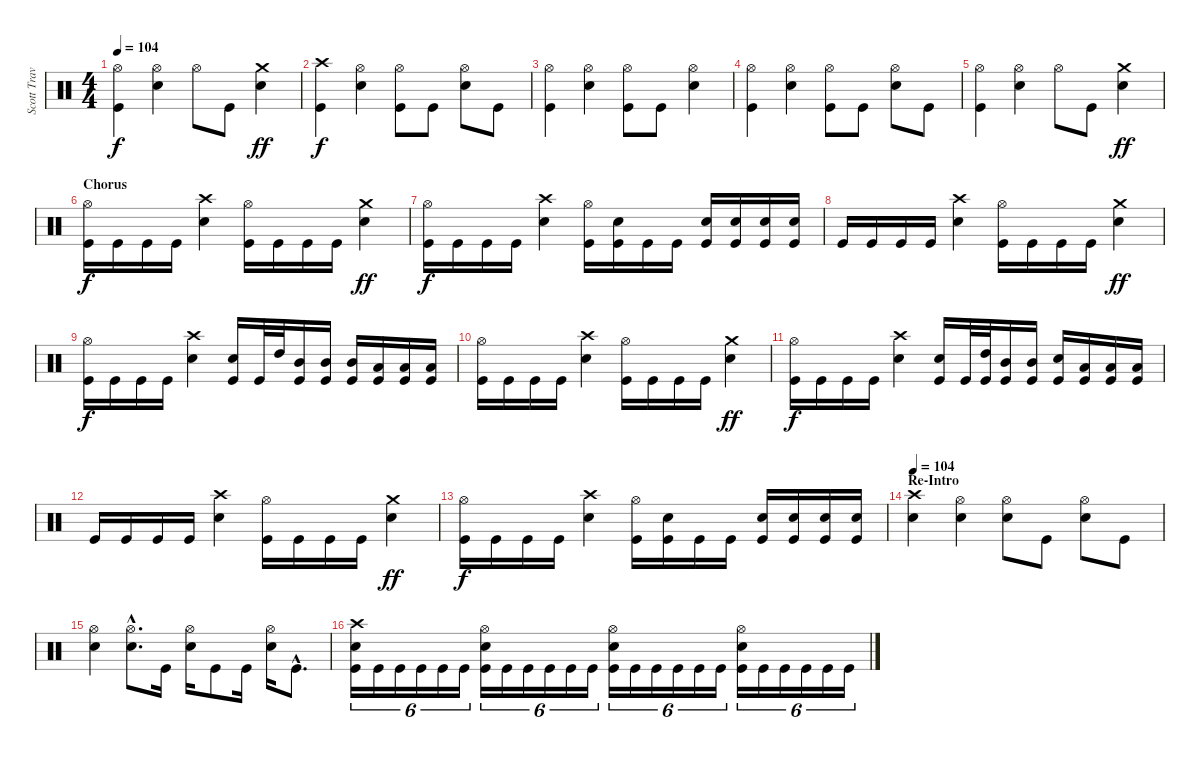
\track ("Scott Travis" "Scott Trav") {instrument percussion}
\staff {score}
\articulation defaults
\ts (4 4)
\tempo 104
\clef neutral
\ks c
("Hi-Hat (open)" "Kick (hit)").4{dy f} ("Hi-Hat (open)" "Electric Snare (hit)").4 "Hi-Hat (open)".8 "Kick (hit)".8 ("Crash medium (hit)" "Electric Snare (hit)").4{dy ff} |
("Crash high (hit)" "Kick (hit)").4{dy f} ("Hi-Hat (open)" "Electric Snare (hit)").4 ("Hi-Hat (open)" "Kick (hit)").8 "Kick (hit)".8 ("Hi-Hat (open)" "Electric Snare (hit)").8 "Kick (hit)".8 |
("Hi-Hat (open)" "Kick (hit)").4 ("Hi-Hat (open)" "Electric Snare (hit)").4 ("Hi-Hat (open)" "Kick (hit)").8 "Kick (hit)".8 ("Hi-Hat (open)" "Electric Snare (hit)").4 |
("Hi-Hat (open)" "Kick (hit)").4 ("Hi-Hat (open)" "Electric Snare (hit)").4 ("Hi-Hat (open)" "Kick (hit)").8 "Kick (hit)".8 ("Hi-Hat (open)" "Electric Snare (hit)").8 "Kick (hit)".8 |
("Hi-Hat (open)" "Kick (hit)").4 ("Hi-Hat (open)" "Electric Snare (hit)").4 "Hi-Hat (open)".8 "Kick (hit)".8 ("Crash medium (hit)" "Electric Snare (hit)").4{dy ff} |
\section ("" "Chorus")
("Hi-Hat (open)" "Kick (hit)").16{dy f} "Kick (hit)".16 "Kick (hit)".16 "Kick (hit)".16 ("Crash high (hit)" "Electric Snare (hit)").4 ("Hi-Hat (open)" "Kick (hit)").16 "Kick (hit)".16 "Kick (hit)".16 "Kick (hit)".16 ("Crash medium (hit)" "Electric Snare (hit)").4{dy ff} |
("Hi-Hat (open)" "Kick (hit)").16{dy f} "Kick (hit)".16 "Kick (hit)".16 "Kick (hit)".16 ("Crash high (hit)" "Electric Snare (hit)").4 ("Hi-Hat (open)" "Kick (hit)").16 ("Electric Snare (hit)" "Kick (hit)").16 "Kick (hit)".16 "Kick (hit)".16 ("Electric Snare (hit)" "Kick (hit)").16 ("Electric Snare (hit)" "Kick (hit)").16 ("Electric Snare (hit)" "Kick (hit)").16 ("Electric Snare (hit)" "Kick (hit)").16 |
"Kick (hit)".16 "Kick (hit)".16 "Kick (hit)".16 "Kick (hit)".16 ("Crash high (hit)" "Electric Snare (hit)").4 ("Hi-Hat (open)" "Kick (hit)").16 "Kick (hit)".16 "Kick (hit)".16 "Kick (hit)".16 ("Crash medium (hit)" "Electric Snare (hit)").4{dy ff} |
("Hi-Hat (open)" "Kick (hit)").16{dy f} "Kick (hit)".16 "Kick (hit)".16 "Kick (hit)".16 ("Crash high (hit)" "Electric Snare (hit)").4 ("Electric Snare (hit)" "Kick (hit)").16 "Kick (hit)".32 "High Tom (hit)".32 ("Mid Tom (hit)" "Kick (hit)").16 ("Mid Tom (hit)" "Kick (hit)").16 ("Mid Tom (hit)" "Kick (hit)").16 ("Low Tom (hit)" "Kick (hit)").16 ("Low Tom (hit)" "Kick (hit)").16 ("Low Tom (hit)" "Kick (hit)").16 |
("Hi-Hat (open)" "Kick (hit)").16 "Kick (hit)".16 "Kick (hit)".16 "Kick (hit)".16 ("Crash high (hit)" "Electric Snare (hit)").4 ("Hi-Hat (open)" "Kick (hit)").16 "Kick (hit)".16 "Kick (hit)".16 "Kick (hit)".16 ("Crash medium (hit)" "Electric Snare (hit)").4{dy ff} |
("Hi-Hat (open)" "Kick (hit)").16{dy f} "Kick (hit)".16 "Kick (hit)".16 "Kick (hit)".16 ("Crash high (hit)" "Electric Snare (hit)").4 ("Electric Snare (hit)" "Kick (hit)").16 "Kick (hit)".32 ("High Tom (hit)" "Kick (hit)").32 ("Mid Tom (hit)" "Kick (hit)").16 ("Mid Tom (hit)" "Kick (hit)").16 ("Electric Snare (hit)" "Kick (hit)").16 ("Low Tom (hit)" "Kick (hit)").16 ("Low Tom (hit)" "Kick (hit)").16 ("Low Tom (hit)" "Kick (hit)").16 |
"Kick (hit)".16 "Kick (hit)".16 "Kick (hit)".16 "Kick (hit)".16 ("Crash high (hit)" "Electric Snare (hit)").4 ("Hi-Hat (open)" "Kick (hit)").16 "Kick (hit)".16 "Kick (hit)".16 "Kick (hit)".16 ("Crash medium (hit)" "Electric Snare (hit)").4{dy ff} |
("Hi-Hat (open)" "Kick (hit)").16{dy f} "Kick (hit)".16 "Kick (hit)".16 "Kick (hit)".16 ("Crash high (hit)" "Electric Snare (hit)").4 ("Hi-Hat (open)" "Kick (hit)").16 ("Electric Snare (hit)" "Kick (hit)").16 "Kick (hit)".16 "Kick (hit)".16 ("Electric Snare (hit)" "Kick (hit)").16 ("Electric Snare (hit)" "Kick (hit)").16 ("Electric Snare (hit)" "Kick (hit)").16 ("Electric Snare (hit)" "Kick (hit)").16 |
\section ("" "Re-Intro")
\tempo 104
("Crash high (hit)" "Electric Snare (hit)").4 ("Hi-Hat (open)" "Electric Snare (hit)").4 ("Hi-Hat (open)" "Electric Snare (hit)").8 "Kick (hit)".8 ("Hi-Hat (open)" "Electric Snare (hit)").8 "Kick (hit)".8 |
("Hi-Hat (open)" "Electric Snare (hit)").4 ("Hi-Hat (open)"{hac} "Electric Snare (hit)"{hac}).8{d} "Kick (hit)".16 ("Hi-Hat (open)" "Electric Snare (hit)").16 "Kick (hit)".8 "Kick (hit)".16 ("Hi-Hat (open)" "Electric Snare (hit)").16 "Kick (hit)"{hac}.8{d} |
("Crash high (hit)" "Electric Snare (hit)" "Kick (hit)").16{tu (6 4)} "Kick (hit)".16{tu (6 4)} "Kick (hit)".16{tu (6 4)} "Kick (hit)".16{tu (6 4)} "Kick (hit)".16{tu (6 4)} "Kick (hit)".16{tu (6 4)} ("Hi-Hat (open)" "Electric Snare (hit)" "Kick (hit)").16{tu (6 4)} "Kick (hit)".16{tu (6 4)} "Kick (hit)".16{tu (6 4)} "Kick (hit)".16{tu (6 4)} "Kick (hit)".16{tu (6 4)} "Kick (hit)".16{tu (6 4)} ("Hi-Hat (open)" "Electric Snare (hit)" "Kick (hit)").16{tu (6 4)} "Kick (hit)".16{tu (6 4)} "Kick (hit)".16{tu (6 4)} "Kick (hit)".16{tu (6 4)} "Kick (hit)".16{tu (6 4)} "Kick (hit)".16{tu (6 4)} ("Hi-Hat (open)" "Electric Snare (hit)" "Kick (hit)").16{tu (6 4)} "Kick (hit)".16{tu (6 4)} "Kick (hit)".16{tu (6 4)} "Kick (hit)".16{tu (6 4)} "Kick (hit)".16{tu (6 4)} "Kick (hit)".16{tu (6 4)}
